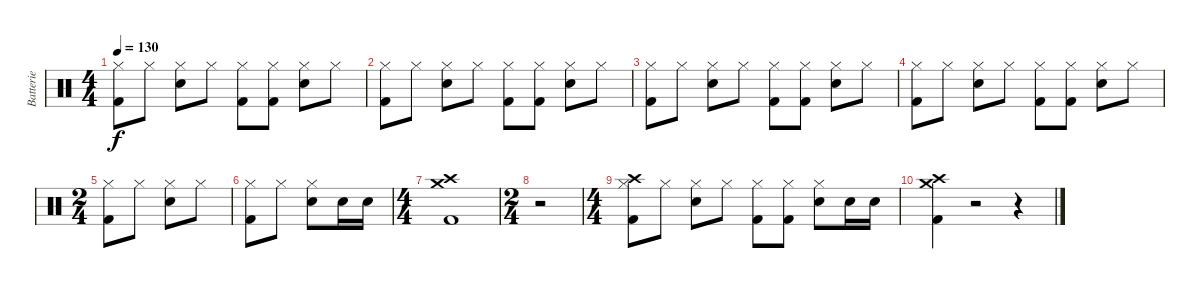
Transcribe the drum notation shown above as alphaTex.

\track ("Batterie" "Batterie") {instrument percussion}
\staff {score}
\articulation defaults
\ts (4 4)
\tempo 130
\clef neutral
\ks c
("Hi-Hat (closed)" "Kick (hit) 2").8{dy f} "Hi-Hat (closed)".8 ("Hi-Hat (closed)" "Snare (hit) 2").8 "Hi-Hat (closed)".8 ("Hi-Hat (closed)" "Kick (hit) 2").8 ("Hi-Hat (closed)" "Kick (hit) 2").8 ("Hi-Hat (closed)" "Snare (hit) 2").8 "Hi-Hat (closed)".8 |
("Hi-Hat (closed)" "Kick (hit) 2").8 "Hi-Hat (closed)".8 ("Hi-Hat (closed)" "Snare (hit) 2").8 "Hi-Hat (closed)".8 ("Hi-Hat (closed)" "Kick (hit) 2").8 ("Hi-Hat (closed)" "Kick (hit) 2").8 ("Hi-Hat (closed)" "Snare (hit) 2").8 "Hi-Hat (closed)".8 |
("Hi-Hat (closed)" "Kick (hit) 2").8 "Hi-Hat (closed)".8 ("Hi-Hat (closed)" "Snare (hit) 2").8 "Hi-Hat (closed)".8 ("Hi-Hat (closed)" "Kick (hit) 2").8 ("Hi-Hat (closed)" "Kick (hit) 2").8 ("Hi-Hat (closed)" "Snare (hit) 2").8 "Hi-Hat (closed)".8 |
("Hi-Hat (closed)" "Kick (hit) 2").8 "Hi-Hat (closed)".8 ("Hi-Hat (closed)" "Snare (hit) 2").8 "Hi-Hat (closed)".8 ("Hi-Hat (closed)" "Kick (hit) 2").8 ("Hi-Hat (closed)" "Kick (hit) 2").8 ("Hi-Hat (closed)" "Snare (hit) 2").8 "Hi-Hat (closed)".8 |
\ts (2 4)
("Hi-Hat (closed)" "Kick (hit) 2").8 "Hi-Hat (closed)".8 ("Hi-Hat (closed)" "Snare (hit) 2").8 "Hi-Hat (closed)".8 |
("Hi-Hat (closed)" "Kick (hit) 2").8 "Hi-Hat (closed)".8 ("Hi-Hat (closed)" "Snare (hit) 2").8 "Snare (hit) 2".16 "Snare (hit) 2".16 |
\ts (4 4)
("Crash high (hit)" "Crash medium (hit)" "Kick (hit) 2").1 |
\ts (2 4)
r.2 |
\ts (4 4)
("Crash high (hit)" "Hi-Hat (closed)" "Kick (hit) 2").8 "Hi-Hat (closed)".8 ("Hi-Hat (closed)" "Snare (hit) 2").8 "Hi-Hat (closed)".8 ("Hi-Hat (closed)" "Kick (hit) 2").8 ("Hi-Hat (closed)" "Kick (hit) 2").8 ("Hi-Hat (closed)" "Snare (hit) 2").8 "Snare (hit) 2".16 "Snare (hit) 2".16 |
("Crash high (hit)" "Crash medium (hit)" "Kick (hit) 2").4 r.2 r.4
